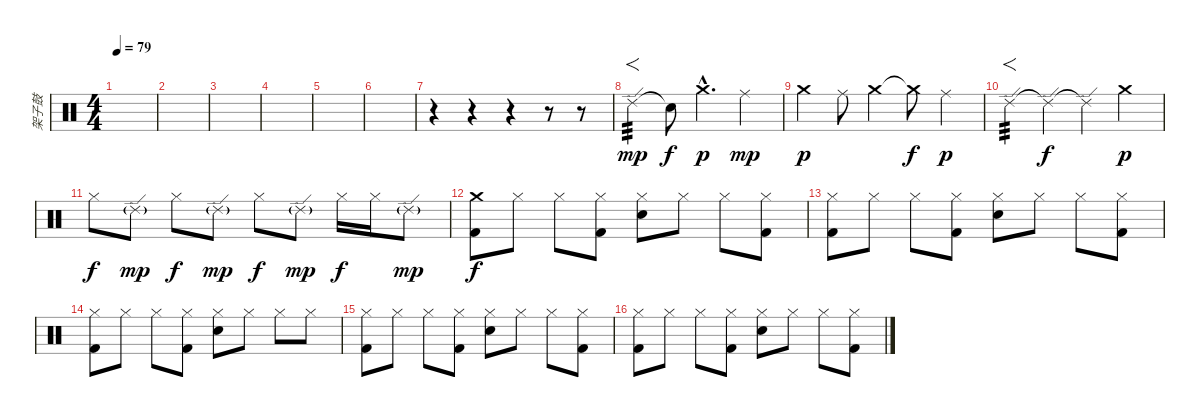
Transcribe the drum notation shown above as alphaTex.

\track ("架子鼓" "架子鼓") {instrument percussion}
\staff {score}
\articulation defaults
\ts (4 4)
\tempo 79
\clef neutral
\ks c
|
|
|
|
|
|
r.4 r.4 r.4 r.8 r.8 |
"Ride (edge) 2".4{f tp 3 dy mp} "Snare (hit)"{t}.8{dy f} "Crash medium (hit)"{hac}.4{d dy p} "Ride (middle)".4{dy mp} |
"Crash medium (hit)".4{dy p} "Ride (middle)".8 "Crash medium (hit)".4 "Crash medium (hit)"{t}.8{dy f} "Ride (middle)".4{dy p} |
"Ride (edge) 2".4{f tp 3} "Ride (edge) 2"{t}.4{dy f} "Ride (edge) 2"{t}.4 "Crash medium (hit)".4{dy p} |
"Hi-Hat (closed)".8{dy f} "Ride (edge) 2"{g}.8{dy mp} "Hi-Hat (closed)".8{dy f} "Ride (edge) 2"{g}.8{dy mp} "Hi-Hat (closed)".8{dy f} "Ride (edge) 2"{g}.8{dy mp} "Hi-Hat (closed)".16{dy f} "Hi-Hat (closed)".16 "Ride (edge) 2"{g}.8{dy mp} |
("Crash medium (hit)" "Kick (hit) 2").8{dy f} "Hi-Hat (closed)".8 "Hi-Hat (closed)".8 ("Hi-Hat (closed)" "Kick (hit) 2").8 ("Hi-Hat (closed)" "Electric Snare (hit)").8 "Hi-Hat (closed)".8 "Hi-Hat (closed)".8 ("Hi-Hat (closed)" "Kick (hit) 2").8 |
("Hi-Hat (closed)" "Kick (hit) 2").8 "Hi-Hat (closed)".8 "Hi-Hat (closed)".8 ("Hi-Hat (closed)" "Kick (hit) 2").8 ("Hi-Hat (closed)" "Electric Snare (hit)").8 "Hi-Hat (closed)".8 "Hi-Hat (closed)".8 ("Hi-Hat (closed)" "Kick (hit) 2").8 |
("Hi-Hat (closed)" "Kick (hit) 2").8 "Hi-Hat (closed)".8 "Hi-Hat (closed)".8 ("Hi-Hat (closed)" "Kick (hit) 2").8 ("Hi-Hat (closed)" "Electric Snare (hit)").8 "Hi-Hat (closed)".8 "Hi-Hat (closed)".8 "Hi-Hat (closed)".8 |
("Hi-Hat (closed)" "Kick (hit) 2").8 "Hi-Hat (closed)".8 "Hi-Hat (closed)".8 ("Hi-Hat (closed)" "Kick (hit) 2").8 ("Hi-Hat (closed)" "Electric Snare (hit)").8 "Hi-Hat (closed)".8 "Hi-Hat (closed)".8 ("Hi-Hat (closed)" "Kick (hit) 2").8 |
("Hi-Hat (closed)" "Kick (hit) 2").8 "Hi-Hat (closed)".8 "Hi-Hat (closed)".8 ("Hi-Hat (closed)" "Kick (hit) 2").8 ("Hi-Hat (closed)" "Electric Snare (hit)").8 "Hi-Hat (closed)".8 "Hi-Hat (closed)".8 ("Hi-Hat (closed)" "Kick (hit) 2").8
